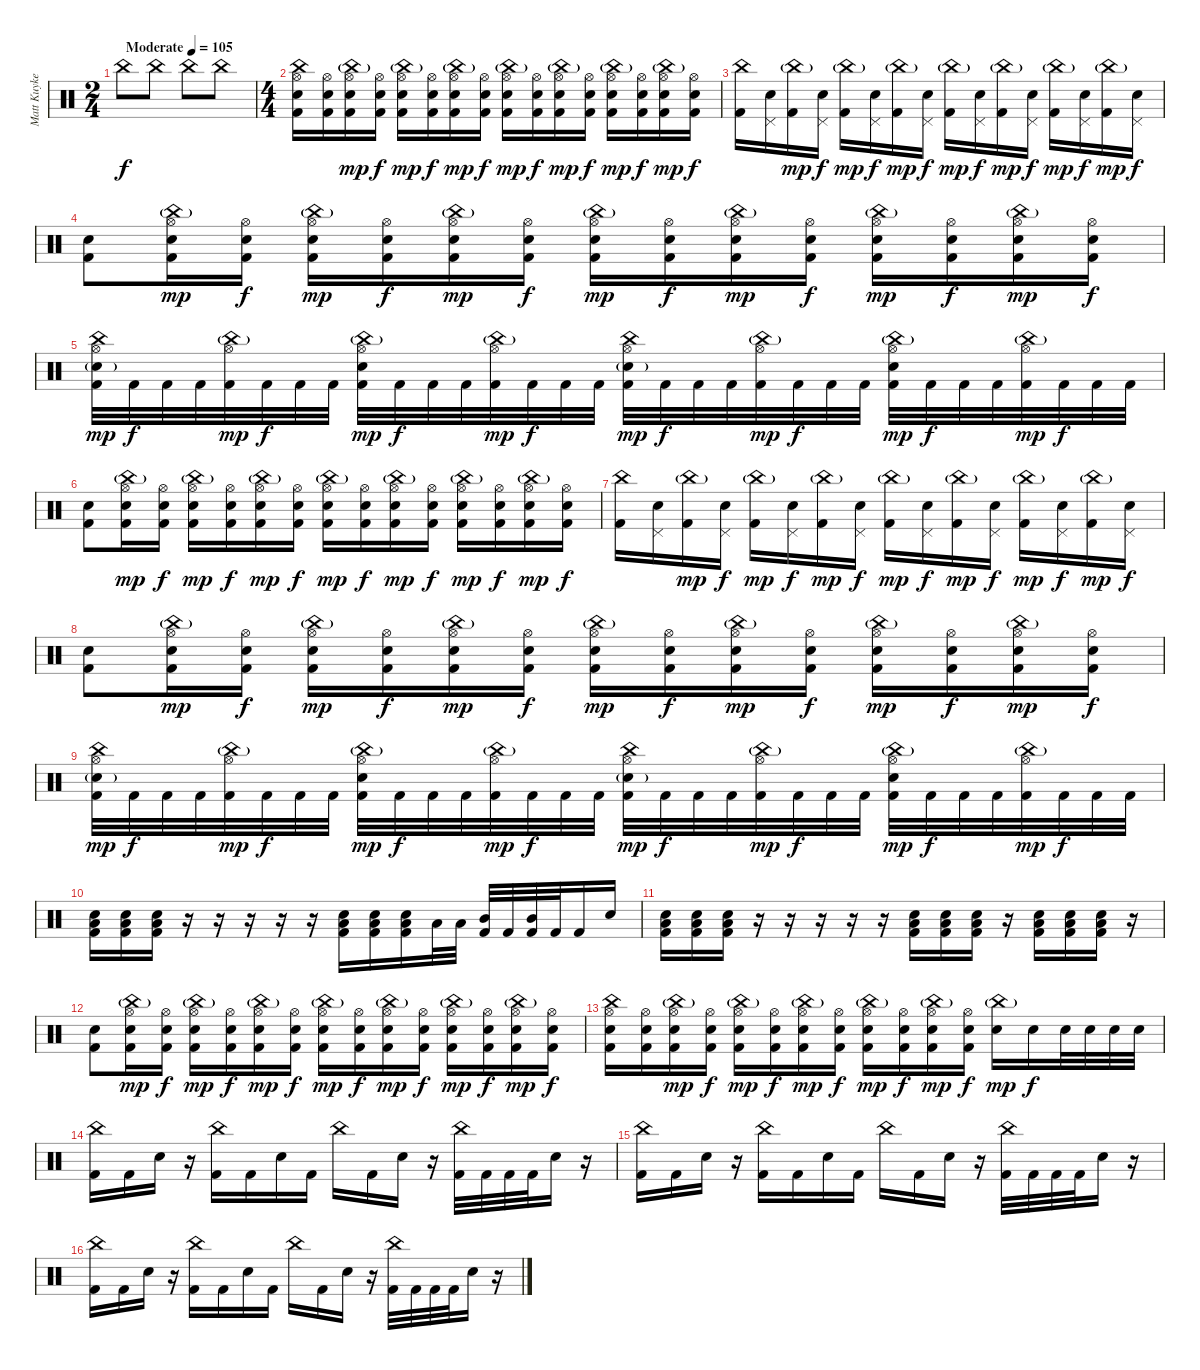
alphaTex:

\track ("Matt Kuykendall (Drums)" "Matt Kuyke") {instrument percussion}
\staff {score}
\articulation defaults
\ts (2 4)
\tempo (105 "Moderate")
\clef neutral
\ks c "China (hit)".8{dy f} "China (hit)".8 "China (hit)".8 "China (hit)".8
|
\ts (4 4)
("China (hit)" "Hi-Hat (open)" "Snare (hit) 2" "Kick (hit) 2").16 ("Hi-Hat (open)" "Snare (hit) 2" "Kick (hit) 2").16 ("China (hit)"{g} "Hi-Hat (open)" "Snare (hit) 2" "Kick (hit) 2").16{dy mp} ("Hi-Hat (open)" "Snare (hit) 2" "Kick (hit) 2").16{dy f} ("China (hit)"{g} "Hi-Hat (open)" "Snare (hit) 2" "Kick (hit) 2").16{dy mp} ("Hi-Hat (open)" "Snare (hit) 2" "Kick (hit) 2").16{dy f} ("China (hit)"{g} "Hi-Hat (open)" "Snare (hit) 2" "Kick (hit) 2").16{dy mp} ("Hi-Hat (open)" "Snare (hit) 2" "Kick (hit) 2").16{dy f} ("China (hit)"{g} "Hi-Hat (open)" "Snare (hit) 2" "Kick (hit) 2").16{dy mp} ("Hi-Hat (open)" "Snare (hit) 2" "Kick (hit) 2").16{dy f} ("China (hit)"{g} "Hi-Hat (open)" "Snare (hit) 2" "Kick (hit) 2").16{dy mp} ("Hi-Hat (open)" "Snare (hit) 2" "Kick (hit) 2").16{dy f} ("China (hit)"{g} "Hi-Hat (open)" "Snare (hit) 2" "Kick (hit) 2").16{dy mp} ("Hi-Hat (open)" "Snare (hit) 2" "Kick (hit) 2").16{dy f} ("China (hit)"{g} "Hi-Hat (open)" "Snare (hit) 2" "Kick (hit) 2").16{dy mp} ("Hi-Hat (open)" "Snare (hit) 2" "Kick (hit) 2").16{dy f} |
("China (hit)" "Kick (hit) 2").16 ("Pedal Hi-Hat (hit)" "Snare (hit) 2").16 ("China (hit)"{g} "Kick (hit) 2").16{dy mp} ("Pedal Hi-Hat (hit)" "Snare (hit) 2").16{dy f} ("China (hit)"{g} "Kick (hit) 2").16{dy mp} ("Pedal Hi-Hat (hit)" "Snare (hit) 2").16{dy f} ("China (hit)"{g} "Kick (hit) 2").16{dy mp} ("Pedal Hi-Hat (hit)" "Snare (hit) 2").16{dy f} ("China (hit)"{g} "Kick (hit) 2").16{dy mp} ("Pedal Hi-Hat (hit)" "Snare (hit) 2").16{dy f} ("China (hit)"{g} "Kick (hit) 2").16{dy mp} ("Pedal Hi-Hat (hit)" "Snare (hit) 2").16{dy f} ("China (hit)"{g} "Kick (hit) 2").16{dy mp} ("Pedal Hi-Hat (hit)" "Snare (hit) 2").16{dy f} ("China (hit)"{g} "Kick (hit) 2").16{dy mp} ("Pedal Hi-Hat (hit)" "Snare (hit) 2").16{dy f} |
("Snare (hit) 2" "Kick (hit) 2").8 ("China (hit)"{g} "Hi-Hat (open)" "Snare (hit) 2" "Kick (hit) 2").16{dy mp} ("Hi-Hat (open)" "Snare (hit) 2" "Kick (hit) 2").16{dy f} ("China (hit)"{g} "Hi-Hat (open)" "Snare (hit) 2" "Kick (hit) 2").16{dy mp} ("Hi-Hat (open)" "Snare (hit) 2" "Kick (hit) 2").16{dy f} ("China (hit)"{g} "Hi-Hat (open)" "Snare (hit) 2" "Kick (hit) 2").16{dy mp} ("Hi-Hat (open)" "Snare (hit) 2" "Kick (hit) 2").16{dy f} ("China (hit)"{g} "Hi-Hat (open)" "Snare (hit) 2" "Kick (hit) 2").16{dy mp} ("Hi-Hat (open)" "Snare (hit) 2" "Kick (hit) 2").16{dy f} ("China (hit)"{g} "Hi-Hat (open)" "Snare (hit) 2" "Kick (hit) 2").16{dy mp} ("Hi-Hat (open)" "Snare (hit) 2" "Kick (hit) 2").16{dy f} ("China (hit)"{g} "Hi-Hat (open)" "Snare (hit) 2" "Kick (hit) 2").16{dy mp} ("Hi-Hat (open)" "Snare (hit) 2" "Kick (hit) 2").16{dy f} ("China (hit)"{g} "Hi-Hat (open)" "Snare (hit) 2" "Kick (hit) 2").16{dy mp} ("Hi-Hat (open)" "Snare (hit) 2" "Kick (hit) 2").16{dy f} |
("China (hit)" "Hi-Hat (open)" "Snare (hit) 2"{g} "Kick (hit) 2").32{dy mp} "Kick (hit) 2".32{dy f} "Kick (hit) 2".32 "Kick (hit) 2".32 ("China (hit)"{g} "Hi-Hat (open)" "Kick (hit) 2").32{dy mp} "Kick (hit) 2".32{dy f} "Kick (hit) 2".32 "Kick (hit) 2".32 ("China (hit)"{g} "Hi-Hat (open)" "Snare (hit) 2" "Kick (hit) 2").32{dy mp} "Kick (hit) 2".32{dy f} "Kick (hit) 2".32 "Kick (hit) 2".32 ("China (hit)"{g} "Hi-Hat (open)" "Kick (hit) 2").32{dy mp} "Kick (hit) 2".32{dy f} "Kick (hit) 2".32 "Kick (hit) 2".32 ("China (hit)" "Hi-Hat (open)" "Snare (hit) 2"{g} "Kick (hit) 2").32{dy mp} "Kick (hit) 2".32{dy f} "Kick (hit) 2".32 "Kick (hit) 2".32 ("China (hit)"{g} "Hi-Hat (open)" "Kick (hit) 2").32{dy mp} "Kick (hit) 2".32{dy f} "Kick (hit) 2".32 "Kick (hit) 2".32 ("China (hit)"{g} "Hi-Hat (open)" "Snare (hit) 2" "Kick (hit) 2").32{dy mp} "Kick (hit) 2".32{dy f} "Kick (hit) 2".32 "Kick (hit) 2".32 ("China (hit)"{g} "Hi-Hat (open)" "Kick (hit) 2").32{dy mp} "Kick (hit) 2".32{dy f} "Kick (hit) 2".32 "Kick (hit) 2".32 |
("Snare (hit) 2" "Kick (hit) 2").8 ("China (hit)"{g} "Hi-Hat (open)" "Snare (hit) 2" "Kick (hit) 2").16{dy mp} ("Hi-Hat (open)" "Snare (hit) 2" "Kick (hit) 2").16{dy f} ("China (hit)"{g} "Hi-Hat (open)" "Snare (hit) 2" "Kick (hit) 2").16{dy mp} ("Hi-Hat (open)" "Snare (hit) 2" "Kick (hit) 2").16{dy f} ("China (hit)"{g} "Hi-Hat (open)" "Snare (hit) 2" "Kick (hit) 2").16{dy mp} ("Hi-Hat (open)" "Snare (hit) 2" "Kick (hit) 2").16{dy f} ("China (hit)"{g} "Hi-Hat (open)" "Snare (hit) 2" "Kick (hit) 2").16{dy mp} ("Hi-Hat (open)" "Snare (hit) 2" "Kick (hit) 2").16{dy f} ("China (hit)"{g} "Hi-Hat (open)" "Snare (hit) 2" "Kick (hit) 2").16{dy mp} ("Hi-Hat (open)" "Snare (hit) 2" "Kick (hit) 2").16{dy f} ("China (hit)"{g} "Hi-Hat (open)" "Snare (hit) 2" "Kick (hit) 2").16{dy mp} ("Hi-Hat (open)" "Snare (hit) 2" "Kick (hit) 2").16{dy f} ("China (hit)"{g} "Hi-Hat (open)" "Snare (hit) 2" "Kick (hit) 2").16{dy mp} ("Hi-Hat (open)" "Snare (hit) 2" "Kick (hit) 2").16{dy f} |
("China (hit)" "Kick (hit) 2").16 ("Pedal Hi-Hat (hit)" "Snare (hit) 2").16 ("China (hit)"{g} "Kick (hit) 2").16{dy mp} ("Pedal Hi-Hat (hit)" "Snare (hit) 2").16{dy f} ("China (hit)"{g} "Kick (hit) 2").16{dy mp} ("Pedal Hi-Hat (hit)" "Snare (hit) 2").16{dy f} ("China (hit)"{g} "Kick (hit) 2").16{dy mp} ("Pedal Hi-Hat (hit)" "Snare (hit) 2").16{dy f} ("China (hit)"{g} "Kick (hit) 2").16{dy mp} ("Pedal Hi-Hat (hit)" "Snare (hit) 2").16{dy f} ("China (hit)"{g} "Kick (hit) 2").16{dy mp} ("Pedal Hi-Hat (hit)" "Snare (hit) 2").16{dy f} ("China (hit)"{g} "Kick (hit) 2").16{dy mp} ("Pedal Hi-Hat (hit)" "Snare (hit) 2").16{dy f} ("China (hit)"{g} "Kick (hit) 2").16{dy mp} ("Pedal Hi-Hat (hit)" "Snare (hit) 2").16{dy f} |
("Snare (hit) 2" "Kick (hit) 2").8 ("China (hit)"{g} "Hi-Hat (open)" "Snare (hit) 2" "Kick (hit) 2").16{dy mp} ("Hi-Hat (open)" "Snare (hit) 2" "Kick (hit) 2").16{dy f} ("China (hit)"{g} "Hi-Hat (open)" "Snare (hit) 2" "Kick (hit) 2").16{dy mp} ("Hi-Hat (open)" "Snare (hit) 2" "Kick (hit) 2").16{dy f} ("China (hit)"{g} "Hi-Hat (open)" "Snare (hit) 2" "Kick (hit) 2").16{dy mp} ("Hi-Hat (open)" "Snare (hit) 2" "Kick (hit) 2").16{dy f} ("China (hit)"{g} "Hi-Hat (open)" "Snare (hit) 2" "Kick (hit) 2").16{dy mp} ("Hi-Hat (open)" "Snare (hit) 2" "Kick (hit) 2").16{dy f} ("China (hit)"{g} "Hi-Hat (open)" "Snare (hit) 2" "Kick (hit) 2").16{dy mp} ("Hi-Hat (open)" "Snare (hit) 2" "Kick (hit) 2").16{dy f} ("China (hit)"{g} "Hi-Hat (open)" "Snare (hit) 2" "Kick (hit) 2").16{dy mp} ("Hi-Hat (open)" "Snare (hit) 2" "Kick (hit) 2").16{dy f} ("China (hit)"{g} "Hi-Hat (open)" "Snare (hit) 2" "Kick (hit) 2").16{dy mp} ("Hi-Hat (open)" "Snare (hit) 2" "Kick (hit) 2").16{dy f} |
("China (hit)" "Hi-Hat (open)" "Snare (hit) 2"{g} "Kick (hit) 2").32{dy mp} "Kick (hit) 2".32{dy f} "Kick (hit) 2".32 "Kick (hit) 2".32 ("China (hit)"{g} "Hi-Hat (open)" "Kick (hit) 2").32{dy mp} "Kick (hit) 2".32{dy f} "Kick (hit) 2".32 "Kick (hit) 2".32 ("China (hit)"{g} "Hi-Hat (open)" "Snare (hit) 2" "Kick (hit) 2").32{dy mp} "Kick (hit) 2".32{dy f} "Kick (hit) 2".32 "Kick (hit) 2".32 ("China (hit)"{g} "Hi-Hat (open)" "Kick (hit) 2").32{dy mp} "Kick (hit) 2".32{dy f} "Kick (hit) 2".32 "Kick (hit) 2".32 ("China (hit)" "Hi-Hat (open)" "Snare (hit) 2"{g} "Kick (hit) 2").32{dy mp} "Kick (hit) 2".32{dy f} "Kick (hit) 2".32 "Kick (hit) 2".32 ("China (hit)"{g} "Hi-Hat (open)" "Kick (hit) 2").32{dy mp} "Kick (hit) 2".32{dy f} "Kick (hit) 2".32 "Kick (hit) 2".32 ("China (hit)"{g} "Hi-Hat (open)" "Snare (hit) 2" "Kick (hit) 2").32{dy mp} "Kick (hit) 2".32{dy f} "Kick (hit) 2".32 "Kick (hit) 2".32 ("China (hit)"{g} "Hi-Hat (open)" "Kick (hit) 2").32{dy mp} "Kick (hit) 2".32{dy f} "Kick (hit) 2".32 "Kick (hit) 2".32 |
("Low Floor Tom (hit)" "Snare (hit) 2" "Kick (hit) 2").16 ("Low Floor Tom (hit)" "Snare (hit) 2" "Kick (hit) 2").16 ("Low Floor Tom (hit)" "Snare (hit) 2" "Kick (hit) 2").16 r.16 r.16 r.16 r.16 r.16 ("Low Floor Tom (hit)" "Snare (hit) 2" "Kick (hit) 2").16 ("Low Floor Tom (hit)" "Snare (hit) 2" "Kick (hit) 2").16 ("Low Floor Tom (hit)" "Snare (hit) 2" "Kick (hit) 2").16 "Low Floor Tom (hit)".32 "Low Floor Tom (hit)".32 ("Mid Tom (hit)" "Kick (hit) 2").32 "Kick (hit) 2".32 ("Mid Tom (hit)" "Kick (hit) 2").32 "Kick (hit) 2".32 "Kick (hit) 2".16 "Snare (hit) 2".16 |
("Low Floor Tom (hit)" "Snare (hit) 2" "Kick (hit) 2").16 ("Low Floor Tom (hit)" "Snare (hit) 2" "Kick (hit) 2").16 ("Low Floor Tom (hit)" "Snare (hit) 2" "Kick (hit) 2").16 r.16 r.16 r.16 r.16 r.16 ("Low Floor Tom (hit)" "Snare (hit) 2" "Kick (hit) 2").16 ("Low Floor Tom (hit)" "Snare (hit) 2" "Kick (hit) 2").16 ("Low Floor Tom (hit)" "Snare (hit) 2" "Kick (hit) 2").16 r.16 ("Low Floor Tom (hit)" "Snare (hit) 2" "Kick (hit) 2").16 ("Low Floor Tom (hit)" "Snare (hit) 2" "Kick (hit) 2").16 ("Low Floor Tom (hit)" "Snare (hit) 2" "Kick (hit) 2").16 r.16 |
("Snare (hit) 2" "Kick (hit) 2").8 ("China (hit)"{g} "Hi-Hat (open)" "Snare (hit) 2" "Kick (hit) 2").16{dy mp} ("Hi-Hat (open)" "Snare (hit) 2" "Kick (hit) 2").16{dy f} ("China (hit)"{g} "Hi-Hat (open)" "Snare (hit) 2" "Kick (hit) 2").16{dy mp} ("Hi-Hat (open)" "Snare (hit) 2" "Kick (hit) 2").16{dy f} ("China (hit)"{g} "Hi-Hat (open)" "Snare (hit) 2" "Kick (hit) 2").16{dy mp} ("Hi-Hat (open)" "Snare (hit) 2" "Kick (hit) 2").16{dy f} ("China (hit)"{g} "Hi-Hat (open)" "Snare (hit) 2" "Kick (hit) 2").16{dy mp} ("Hi-Hat (open)" "Snare (hit) 2" "Kick (hit) 2").16{dy f} ("China (hit)"{g} "Hi-Hat (open)" "Snare (hit) 2" "Kick (hit) 2").16{dy mp} ("Hi-Hat (open)" "Snare (hit) 2" "Kick (hit) 2").16{dy f} ("China (hit)"{g} "Hi-Hat (open)" "Snare (hit) 2" "Kick (hit) 2").16{dy mp} ("Hi-Hat (open)" "Snare (hit) 2" "Kick (hit) 2").16{dy f} ("China (hit)"{g} "Hi-Hat (open)" "Snare (hit) 2" "Kick (hit) 2").16{dy mp} ("Hi-Hat (open)" "Snare (hit) 2" "Kick (hit) 2").16{dy f} |
("China (hit)" "Hi-Hat (open)" "Snare (hit) 2" "Kick (hit) 2").16 ("Hi-Hat (open)" "Snare (hit) 2" "Kick (hit) 2").16 ("China (hit)"{g} "Hi-Hat (open)" "Snare (hit) 2" "Kick (hit) 2").16{dy mp} ("Hi-Hat (open)" "Snare (hit) 2" "Kick (hit) 2").16{dy f} ("China (hit)"{g} "Hi-Hat (open)" "Snare (hit) 2" "Kick (hit) 2").16{dy mp} ("Hi-Hat (open)" "Snare (hit) 2" "Kick (hit) 2").16{dy f} ("China (hit)"{g} "Hi-Hat (open)" "Snare (hit) 2" "Kick (hit) 2").16{dy mp} ("Hi-Hat (open)" "Snare (hit) 2" "Kick (hit) 2").16{dy f} ("China (hit)"{g} "Hi-Hat (open)" "Snare (hit) 2" "Kick (hit) 2").16{dy mp} ("Hi-Hat (open)" "Snare (hit) 2" "Kick (hit) 2").16{dy f} ("China (hit)"{g} "Hi-Hat (open)" "Snare (hit) 2" "Kick (hit) 2").16{dy mp} ("Hi-Hat (open)" "Snare (hit) 2" "Kick (hit) 2").16{dy f} ("China (hit)"{g} "Snare (hit) 2").16{dy mp} "Snare (hit) 2".16{dy f} "Snare (hit) 2".32 "Snare (hit) 2".32 "Snare (hit) 2".32 "Snare (hit) 2".32 |
("China (hit)" "Kick (hit) 2").16 "Kick (hit) 2".16 "Snare (hit) 2".16 r.16 ("China (hit)" "Kick (hit) 2").16 "Kick (hit) 2".16 "Snare (hit) 2".16 "Kick (hit) 2".16 "China (hit)".16 "Kick (hit) 2".16 "Snare (hit) 2".16 r.16 ("China (hit)" "Kick (hit) 2").32 "Kick (hit) 2".32 "Kick (hit) 2".32 "Kick (hit) 2".32 "Snare (hit) 2".16 r.16 |
("China (hit)" "Kick (hit) 2").16 "Kick (hit) 2".16 "Snare (hit) 2".16 r.16 ("China (hit)" "Kick (hit) 2").16 "Kick (hit) 2".16 "Snare (hit) 2".16 "Kick (hit) 2".16 "China (hit)".16 "Kick (hit) 2".16 "Snare (hit) 2".16 r.16 ("China (hit)" "Kick (hit) 2").32 "Kick (hit) 2".32 "Kick (hit) 2".32 "Kick (hit) 2".32 "Snare (hit) 2".16 r.16 |
("China (hit)" "Kick (hit) 2").16 "Kick (hit) 2".16 "Snare (hit) 2".16 r.16 ("China (hit)" "Kick (hit) 2").16 "Kick (hit) 2".16 "Snare (hit) 2".16 "Kick (hit) 2".16 "China (hit)".16 "Kick (hit) 2".16 "Snare (hit) 2".16 r.16 ("China (hit)" "Kick (hit) 2").32 "Kick (hit) 2".32 "Kick (hit) 2".32 "Kick (hit) 2".32 "Snare (hit) 2".16 r.16
